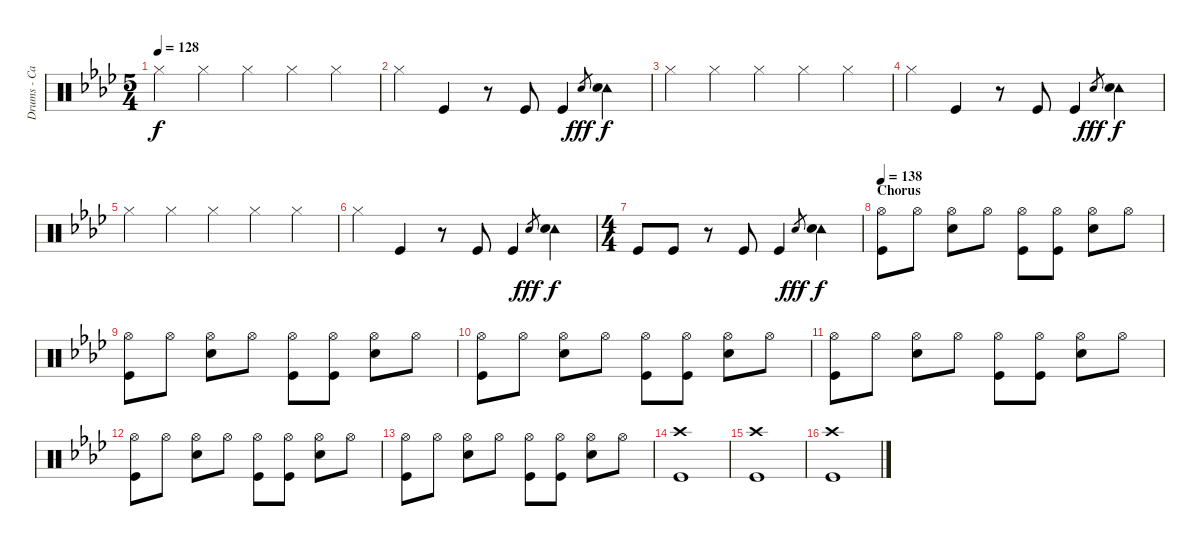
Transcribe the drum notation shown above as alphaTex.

\track ("Drums - Carl Palmer" "Drums - Ca") {instrument percussion}
\staff {score}
\articulation defaults
\ts (5 4)
\tempo 128
\clef neutral
\ks ab "Hi-Hat (closed)".4{dy f} "Hi-Hat (closed)".4 "Hi-Hat (closed)".4 "Hi-Hat (closed)".4 "Hi-Hat (closed)".4
|
"Hi-Hat (closed)".4 "Kick (hit)".4 r.8 "Kick (hit)".8 "Kick (hit)".4 "Snare (hit) 2".8{gr dy fff} ("Tambourine (hit)" "Snare (hit) 2").4{dy f} |
"Hi-Hat (closed)".4 "Hi-Hat (closed)".4 "Hi-Hat (closed)".4 "Hi-Hat (closed)".4 "Hi-Hat (closed)".4 |
"Hi-Hat (closed)".4 "Kick (hit)".4 r.8 "Kick (hit)".8 "Kick (hit)".4 "Snare (hit) 2".8{gr dy fff} ("Tambourine (hit)" "Snare (hit) 2").4{dy f} |
"Hi-Hat (closed)".4 "Hi-Hat (closed)".4 "Hi-Hat (closed)".4 "Hi-Hat (closed)".4 "Hi-Hat (closed)".4 |
"Hi-Hat (closed)".4 "Kick (hit)".4 r.8 "Kick (hit)".8 "Kick (hit)".4 "Snare (hit) 2".8{gr dy fff} ("Tambourine (hit)" "Snare (hit) 2").4{dy f} |
\ts (4 4)
"Kick (hit)".8 "Kick (hit)".8 r.8 "Kick (hit)".8 "Kick (hit)".4 "Snare (hit) 2".8{gr dy fff} ("Tambourine (hit)" "Snare (hit) 2").4{dy f} |
\section ("" "Chorus")
\tempo 138
("Hi-Hat (open)" "Kick (hit)").8 "Hi-Hat (open)".8 ("Hi-Hat (open)" "Snare (hit) 2").8 "Hi-Hat (open)".8 ("Hi-Hat (open)" "Kick (hit)").8 ("Hi-Hat (open)" "Kick (hit)").8 ("Hi-Hat (open)" "Snare (hit) 2").8 "Hi-Hat (open)".8 |
("Hi-Hat (open)" "Kick (hit)").8 "Hi-Hat (open)".8 ("Hi-Hat (open)" "Snare (hit) 2").8 "Hi-Hat (open)".8 ("Hi-Hat (open)" "Kick (hit)").8 ("Hi-Hat (open)" "Kick (hit)").8 ("Hi-Hat (open)" "Snare (hit) 2").8 "Hi-Hat (open)".8 |
("Hi-Hat (open)" "Kick (hit)").8 "Hi-Hat (open)".8 ("Hi-Hat (open)" "Snare (hit) 2").8 "Hi-Hat (open)".8 ("Hi-Hat (open)" "Kick (hit)").8 ("Hi-Hat (open)" "Kick (hit)").8 ("Hi-Hat (open)" "Snare (hit) 2").8 "Hi-Hat (open)".8 |
("Hi-Hat (open)" "Kick (hit)").8 "Hi-Hat (open)".8 ("Hi-Hat (open)" "Snare (hit) 2").8 "Hi-Hat (open)".8 ("Hi-Hat (open)" "Kick (hit)").8 ("Hi-Hat (open)" "Kick (hit)").8 ("Hi-Hat (open)" "Snare (hit) 2").8 "Hi-Hat (open)".8 |
("Hi-Hat (open)" "Kick (hit)").8 "Hi-Hat (open)".8 ("Hi-Hat (open)" "Snare (hit) 2").8 "Hi-Hat (open)".8 ("Hi-Hat (open)" "Kick (hit)").8 ("Hi-Hat (open)" "Kick (hit)").8 ("Hi-Hat (open)" "Snare (hit) 2").8 "Hi-Hat (open)".8 |
("Hi-Hat (open)" "Kick (hit)").8 "Hi-Hat (open)".8 ("Hi-Hat (open)" "Snare (hit) 2").8 "Hi-Hat (open)".8 ("Hi-Hat (open)" "Kick (hit)").8 ("Hi-Hat (open)" "Kick (hit)").8 ("Hi-Hat (open)" "Snare (hit) 2").8 "Hi-Hat (open)".8 |
("Crash high (hit)" "Kick (hit)").1 |
("Crash high (hit)" "Kick (hit)").1 |
("Crash high (hit)" "Kick (hit)").1
